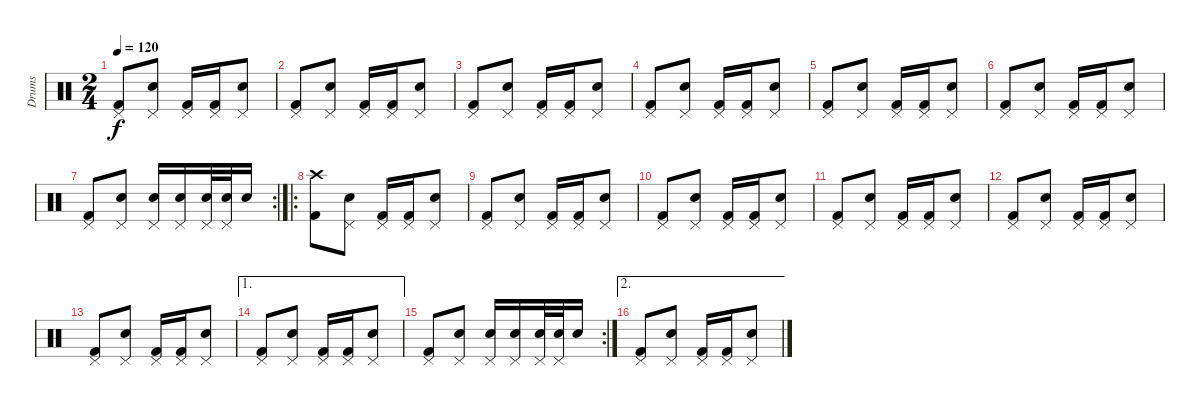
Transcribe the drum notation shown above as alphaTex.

\track ("Drums" "Drums") {instrument percussion}
\staff {score}
\articulation defaults
\ts (2 4)
\tempo 120
\clef neutral
\ks c
("Kick (hit) 2" "Pedal Hi-Hat (hit)").8{dy f} ("Electric Snare (hit)" "Pedal Hi-Hat (hit)").8 ("Kick (hit) 2" "Pedal Hi-Hat (hit)").16 ("Kick (hit) 2" "Pedal Hi-Hat (hit)").16 ("Electric Snare (hit)" "Pedal Hi-Hat (hit)").8 |
("Kick (hit) 2" "Pedal Hi-Hat (hit)").8 ("Electric Snare (hit)" "Pedal Hi-Hat (hit)").8 ("Kick (hit) 2" "Pedal Hi-Hat (hit)").16 ("Kick (hit) 2" "Pedal Hi-Hat (hit)").16 ("Electric Snare (hit)" "Pedal Hi-Hat (hit)").8 |
("Kick (hit) 2" "Pedal Hi-Hat (hit)").8 ("Electric Snare (hit)" "Pedal Hi-Hat (hit)").8 ("Kick (hit) 2" "Pedal Hi-Hat (hit)").16 ("Kick (hit) 2" "Pedal Hi-Hat (hit)").16 ("Electric Snare (hit)" "Pedal Hi-Hat (hit)").8 |
("Kick (hit) 2" "Pedal Hi-Hat (hit)").8 ("Electric Snare (hit)" "Pedal Hi-Hat (hit)").8 ("Kick (hit) 2" "Pedal Hi-Hat (hit)").16 ("Kick (hit) 2" "Pedal Hi-Hat (hit)").16 ("Electric Snare (hit)" "Pedal Hi-Hat (hit)").8 |
("Kick (hit) 2" "Pedal Hi-Hat (hit)").8 ("Electric Snare (hit)" "Pedal Hi-Hat (hit)").8 ("Kick (hit) 2" "Pedal Hi-Hat (hit)").16 ("Kick (hit) 2" "Pedal Hi-Hat (hit)").16 ("Electric Snare (hit)" "Pedal Hi-Hat (hit)").8 |
("Kick (hit) 2" "Pedal Hi-Hat (hit)").8 ("Electric Snare (hit)" "Pedal Hi-Hat (hit)").8 ("Kick (hit) 2" "Pedal Hi-Hat (hit)").16 ("Kick (hit) 2" "Pedal Hi-Hat (hit)").16 ("Electric Snare (hit)" "Pedal Hi-Hat (hit)").8 |
\rc 2
("Kick (hit) 2" "Pedal Hi-Hat (hit)").8 ("Electric Snare (hit)" "Pedal Hi-Hat (hit)").8 ("Electric Snare (hit)" "Pedal Hi-Hat (hit)").16 ("Electric Snare (hit)" "Pedal Hi-Hat (hit)").16 ("Electric Snare (hit)" "Pedal Hi-Hat (hit)").32 ("Electric Snare (hit)" "Pedal Hi-Hat (hit)").32 "Electric Snare (hit)".16 |
\ro
("Kick (hit) 2" "Crash high (hit)").8 ("Electric Snare (hit)" "Pedal Hi-Hat (hit)").8 ("Kick (hit) 2" "Pedal Hi-Hat (hit)").16 ("Kick (hit) 2" "Pedal Hi-Hat (hit)").16 ("Electric Snare (hit)" "Pedal Hi-Hat (hit)").8 |
("Kick (hit) 2" "Pedal Hi-Hat (hit)").8 ("Electric Snare (hit)" "Pedal Hi-Hat (hit)").8 ("Kick (hit) 2" "Pedal Hi-Hat (hit)").16 ("Kick (hit) 2" "Pedal Hi-Hat (hit)").16 ("Electric Snare (hit)" "Pedal Hi-Hat (hit)").8 |
("Kick (hit) 2" "Pedal Hi-Hat (hit)").8 ("Electric Snare (hit)" "Pedal Hi-Hat (hit)").8 ("Kick (hit) 2" "Pedal Hi-Hat (hit)").16 ("Kick (hit) 2" "Pedal Hi-Hat (hit)").16 ("Electric Snare (hit)" "Pedal Hi-Hat (hit)").8 |
("Kick (hit) 2" "Pedal Hi-Hat (hit)").8 ("Electric Snare (hit)" "Pedal Hi-Hat (hit)").8 ("Kick (hit) 2" "Pedal Hi-Hat (hit)").16 ("Kick (hit) 2" "Pedal Hi-Hat (hit)").16 ("Electric Snare (hit)" "Pedal Hi-Hat (hit)").8 |
("Kick (hit) 2" "Pedal Hi-Hat (hit)").8 ("Electric Snare (hit)" "Pedal Hi-Hat (hit)").8 ("Kick (hit) 2" "Pedal Hi-Hat (hit)").16 ("Kick (hit) 2" "Pedal Hi-Hat (hit)").16 ("Electric Snare (hit)" "Pedal Hi-Hat (hit)").8 |
("Kick (hit) 2" "Pedal Hi-Hat (hit)").8 ("Electric Snare (hit)" "Pedal Hi-Hat (hit)").8 ("Kick (hit) 2" "Pedal Hi-Hat (hit)").16 ("Kick (hit) 2" "Pedal Hi-Hat (hit)").16 ("Electric Snare (hit)" "Pedal Hi-Hat (hit)").8 |
\ae 1
("Kick (hit) 2" "Pedal Hi-Hat (hit)").8 ("Electric Snare (hit)" "Pedal Hi-Hat (hit)").8 ("Kick (hit) 2" "Pedal Hi-Hat (hit)").16 ("Kick (hit) 2" "Pedal Hi-Hat (hit)").16 ("Electric Snare (hit)" "Pedal Hi-Hat (hit)").8 |
\rc 2
("Kick (hit) 2" "Pedal Hi-Hat (hit)").8 ("Electric Snare (hit)" "Pedal Hi-Hat (hit)").8 ("Electric Snare (hit)" "Pedal Hi-Hat (hit)").16 ("Electric Snare (hit)" "Pedal Hi-Hat (hit)").16 ("Electric Snare (hit)" "Pedal Hi-Hat (hit)").32 ("Electric Snare (hit)" "Pedal Hi-Hat (hit)").32 "Electric Snare (hit)".16 |
\ae 2
("Kick (hit) 2" "Pedal Hi-Hat (hit)").8 ("Electric Snare (hit)" "Pedal Hi-Hat (hit)").8 ("Kick (hit) 2" "Pedal Hi-Hat (hit)").16 ("Kick (hit) 2" "Pedal Hi-Hat (hit)").16 ("Electric Snare (hit)" "Pedal Hi-Hat (hit)").8
